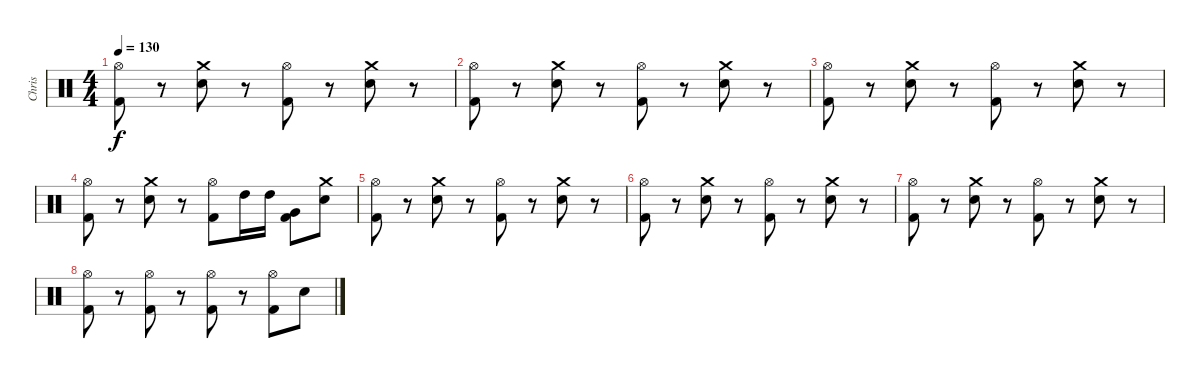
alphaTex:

\track ("Chris" "Chris") {instrument percussion}
\staff {score}
\articulation defaults
\ts (4 4)
\tempo 130
\clef neutral
\ks c
("Hi-Hat (open)" "Kick (hit) 2").8{dy f} r.8 ("Crash medium (hit)" "Electric Snare (hit)").8 r.8 ("Hi-Hat (open)" "Kick (hit) 2").8 r.8 ("Crash medium (hit)" "Electric Snare (hit)").8 r.8 |
("Hi-Hat (open)" "Kick (hit) 2").8 r.8 ("Crash medium (hit)" "Electric Snare (hit)").8 r.8 ("Hi-Hat (open)" "Kick (hit) 2").8 r.8 ("Crash medium (hit)" "Electric Snare (hit)").8 r.8 |
("Hi-Hat (open)" "Kick (hit) 2").8 r.8 ("Crash medium (hit)" "Electric Snare (hit)").8 r.8 ("Hi-Hat (open)" "Kick (hit) 2").8 r.8 ("Crash medium (hit)" "Electric Snare (hit)").8 r.8 |
("Hi-Hat (open)" "Kick (hit) 2").8 r.8 ("Crash medium (hit)" "Electric Snare (hit)").8 r.8 ("Hi-Hat (open)" "Kick (hit) 2").8 "High Tom (hit)".16 "High Tom (hit)".16 ("Very Low Tom (hit)" "Kick (hit) 2").8 ("Electric Snare (hit)" "Crash medium (hit)").8 |
("Hi-Hat (open)" "Kick (hit) 2").8 r.8 ("Crash medium (hit)" "Electric Snare (hit)").8 r.8 ("Hi-Hat (open)" "Kick (hit) 2").8 r.8 ("Crash medium (hit)" "Electric Snare (hit)").8 r.8 |
("Hi-Hat (open)" "Kick (hit) 2").8 r.8 ("Crash medium (hit)" "Electric Snare (hit)").8 r.8 ("Hi-Hat (open)" "Kick (hit) 2").8 r.8 ("Crash medium (hit)" "Electric Snare (hit)").8 r.8 |
("Hi-Hat (open)" "Kick (hit) 2").8 r.8 ("Crash medium (hit)" "Electric Snare (hit)").8 r.8 ("Hi-Hat (open)" "Kick (hit) 2").8 r.8 ("Crash medium (hit)" "Electric Snare (hit)").8 r.8 |
("Hi-Hat (open)" "Kick (hit) 2").8 r.8 ("Hi-Hat (open)" "Kick (hit) 2").8 r.8 ("Hi-Hat (open)" "Kick (hit) 2").8 r.8 ("Hi-Hat (open)" "Kick (hit) 2").8 "Electric Snare (hit)".8
